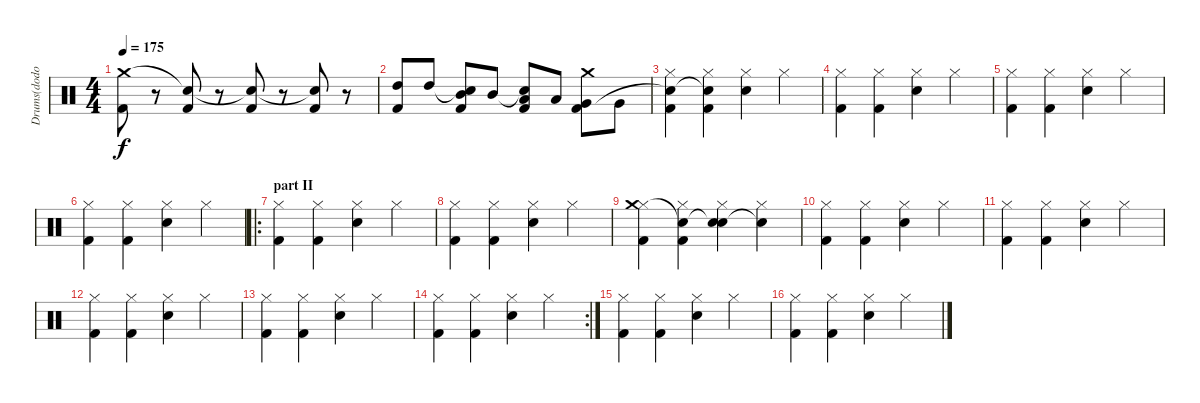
\track ("Drums(dodo)" "Drums(dodo") {instrument percussion}
\staff {score}
\articulation defaults
\ts (4 4)
\tempo 175
\clef neutral
\ks c
("Crash medium (hit)" "Kick (hit) 2").8{dy f} r.8 ("Snare (hit) 2"{t} "Kick (hit) 2").8 r.8 ("Snare (hit)"{t} "Kick (hit) 2").8 r.8 ("Snare (hit)"{t} "Kick (hit) 2").8 r.8 |
("Kick (hit) 2" "High Tom (hit)").8 "High Tom (hit)".8 ("Snare (hit) 2"{t} "Kick (hit) 2" "Mid Tom (hit)").8 "Mid Tom (hit)".8 ("Snare (hit)"{t} "Kick (hit) 2" "Low Tom (hit)").8 "Low Tom (hit)".8 ("Crash medium (hit)" "Kick (hit) 2" "Very Low Tom (hit)").8 "Very Low Tom (hit)".8 |
("Hi-Hat (closed)" "Snare (hit)"{t} "Kick (hit) 2").4 ("Hi-Hat (closed)" "Snare (hit)"{t} "Kick (hit) 2").4 ("Hi-Hat (closed)" "Snare (hit) 2").4 "Hi-Hat (closed)".4 |
("Hi-Hat (closed)" "Kick (hit) 2").4 ("Hi-Hat (closed)" "Kick (hit) 2").4 ("Hi-Hat (closed)" "Snare (hit) 2").4 "Hi-Hat (closed)".4 |
("Hi-Hat (closed)" "Kick (hit) 2").4 ("Hi-Hat (closed)" "Kick (hit) 2").4 ("Hi-Hat (closed)" "Snare (hit) 2").4 "Hi-Hat (closed)".4 |
("Hi-Hat (closed)" "Kick (hit) 2").4 ("Hi-Hat (closed)" "Kick (hit) 2").4 ("Hi-Hat (closed)" "Snare (hit) 2").4 "Hi-Hat (closed)".4 |
\ro
\section ("" "part II")
("Hi-Hat (closed)" "Kick (hit) 2").4 ("Hi-Hat (closed)" "Kick (hit) 2").4 ("Hi-Hat (closed)" "Snare (hit) 2").4 "Hi-Hat (closed)".4 |
("Hi-Hat (closed)" "Kick (hit) 2").4 ("Hi-Hat (closed)" "Kick (hit) 2").4 ("Hi-Hat (closed)" "Snare (hit) 2").4 "Hi-Hat (closed)".4 |
("Hi-Hat (closed)" "Crash medium (hit)" "Kick (hit) 2").4 ("Hi-Hat (closed)" "Snare (hit) 2"{t} "Kick (hit) 2").4 ("Hi-Hat (closed)" "Snare (hit)"{t} "Snare (hit) 2").4 ("Hi-Hat (closed)" "Snare (hit)"{t}).4 |
("Hi-Hat (closed)" "Kick (hit) 2").4 ("Hi-Hat (closed)" "Kick (hit) 2").4 ("Hi-Hat (closed)" "Snare (hit) 2").4 "Hi-Hat (closed)".4 |
("Hi-Hat (closed)" "Kick (hit) 2").4 ("Hi-Hat (closed)" "Kick (hit) 2").4 ("Hi-Hat (closed)" "Snare (hit) 2").4 "Hi-Hat (closed)".4 |
("Hi-Hat (closed)" "Kick (hit) 2").4 ("Hi-Hat (closed)" "Kick (hit) 2").4 ("Hi-Hat (closed)" "Snare (hit) 2").4 "Hi-Hat (closed)".4 |
("Hi-Hat (closed)" "Kick (hit) 2").4 ("Hi-Hat (closed)" "Kick (hit) 2").4 ("Hi-Hat (closed)" "Snare (hit) 2").4 "Hi-Hat (closed)".4 |
\rc 2
("Hi-Hat (closed)" "Kick (hit) 2").4 ("Hi-Hat (closed)" "Kick (hit) 2").4 ("Hi-Hat (closed)" "Snare (hit) 2").4 "Hi-Hat (closed)".4 |
("Hi-Hat (closed)" "Kick (hit) 2").4 ("Hi-Hat (closed)" "Kick (hit) 2").4 ("Hi-Hat (closed)" "Snare (hit) 2").4 "Hi-Hat (closed)".4 |
("Hi-Hat (closed)" "Kick (hit) 2").4 ("Hi-Hat (closed)" "Kick (hit) 2").4 ("Hi-Hat (closed)" "Snare (hit) 2").4 "Hi-Hat (closed)".4
